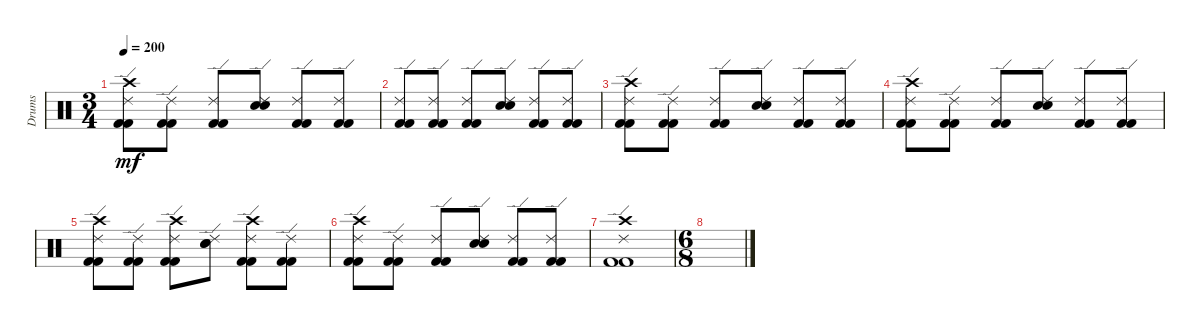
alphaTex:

\track ("Drums" "Drums") {instrument percussion bank 41}
\staff
\articulation defaults
\ts (3 4)
\tempo 200
\clef neutral
\ks c
("Kick (hit) 2" "Kick (hit) 2" "Ride (edge) 2" "Crash high (hit)").8{dy mf} ("Kick (hit) 2" "Kick (hit) 2" "Ride (edge) 2").8 ("Kick (hit) 2" "Kick (hit) 2" "Ride (edge) 2").8 ("Snare (hit) 2" "Electric Snare (hit)" "Ride (edge) 2").8 ("Kick (hit) 2" "Kick (hit) 2" "Ride (edge) 2").8 ("Kick (hit) 2" "Kick (hit) 2" "Ride (edge) 2").8 |
("Kick (hit) 2" "Kick (hit) 2" "Ride (edge) 2").8 ("Kick (hit) 2" "Kick (hit) 2" "Ride (edge) 2").8 ("Kick (hit) 2" "Kick (hit) 2" "Ride (edge) 2").8 ("Snare (hit) 2" "Electric Snare (hit)" "Ride (edge) 2").8 ("Kick (hit) 2" "Kick (hit) 2" "Ride (edge) 2").8 ("Kick (hit) 2" "Kick (hit) 2" "Ride (edge) 2").8 |
("Kick (hit) 2" "Kick (hit) 2" "Ride (edge) 2" "Crash high (hit)").8 ("Kick (hit) 2" "Kick (hit) 2" "Ride (edge) 2").8 ("Kick (hit) 2" "Kick (hit) 2" "Ride (edge) 2").8 ("Snare (hit) 2" "Electric Snare (hit)" "Ride (edge) 2").8 ("Kick (hit) 2" "Kick (hit) 2" "Ride (edge) 2").8 ("Kick (hit) 2" "Kick (hit) 2" "Ride (edge) 2").8 |
("Kick (hit) 2" "Kick (hit) 2" "Ride (edge) 2" "Crash high (hit)").8 ("Kick (hit) 2" "Kick (hit) 2" "Ride (edge) 2").8 ("Kick (hit) 2" "Kick (hit) 2" "Ride (edge) 2").8 ("Snare (hit) 2" "Electric Snare (hit)" "Ride (edge) 2").8 ("Kick (hit) 2" "Kick (hit) 2" "Ride (edge) 2").8 ("Kick (hit) 2" "Kick (hit) 2" "Ride (edge) 2").8 |
("Kick (hit) 2" "Kick (hit) 2" "Ride (edge) 2" "Crash high (hit)").8 ("Kick (hit) 2" "Kick (hit) 2" "Ride (edge) 2").8 ("Kick (hit) 2" "Kick (hit) 2" "Ride (edge) 2" "Crash high (hit)").8 ("Snare (hit) 2" "Electric Snare (hit)" "Ride (edge) 2").8 ("Kick (hit) 2" "Kick (hit) 2" "Ride (edge) 2" "Crash high (hit)").8 ("Kick (hit) 2" "Kick (hit) 2" "Ride (edge) 2").8 |
("Kick (hit) 2" "Kick (hit) 2" "Ride (edge) 2" "Crash high (hit)").8 ("Kick (hit) 2" "Kick (hit) 2" "Ride (edge) 2").8 ("Kick (hit) 2" "Kick (hit) 2" "Ride (edge) 2").8 ("Snare (hit) 2" "Electric Snare (hit)" "Ride (edge) 2").8 ("Kick (hit) 2" "Kick (hit) 2" "Ride (edge) 2").8 ("Kick (hit) 2" "Kick (hit) 2" "Ride (edge) 2").8 |
("Kick (hit) 2" "Kick (hit) 2" "Ride (edge) 2" "Crash high (hit)").1 |
\ts (6 8)
